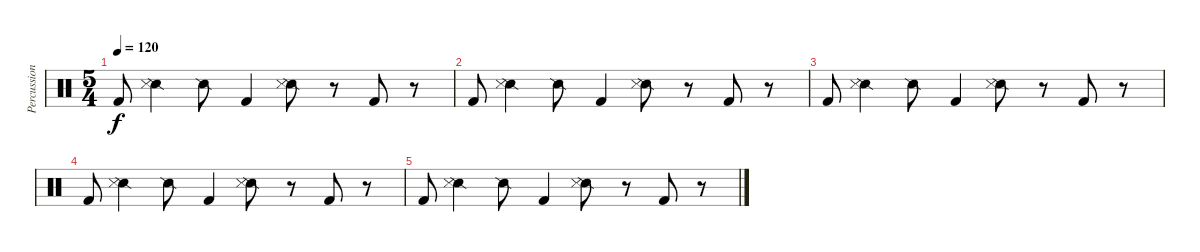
\track ("Percussions" "Percussion") {instrument percussion}
\staff {score}
\articulation defaults
\ts (5 4)
\tempo 120
\clef neutral
\ks c "Kick (hit) 2".8{dy f}
("Snare (side stick) 2" "Metronome (hit)").4 "Snare (side stick) 2".8 "Kick (hit) 2".4 ("Snare (side stick) 2" "Metronome (hit)").8 r.8 "Kick (hit) 2".8 r.8 |
"Kick (hit) 2".8 ("Snare (side stick) 2" "Metronome (hit)").4 "Snare (side stick) 2".8 "Kick (hit) 2".4 ("Snare (side stick) 2" "Metronome (hit)").8 r.8 "Kick (hit) 2".8 r.8 |
"Kick (hit) 2".8 ("Snare (side stick) 2" "Metronome (hit)").4 "Snare (side stick) 2".8 "Kick (hit) 2".4 ("Snare (side stick) 2" "Metronome (hit)").8 r.8 "Kick (hit) 2".8 r.8 |
"Kick (hit) 2".8 ("Snare (side stick) 2" "Metronome (hit)").4 "Snare (side stick) 2".8 "Kick (hit) 2".4 ("Snare (side stick) 2" "Metronome (hit)").8 r.8 "Kick (hit) 2".8 r.8 |
"Kick (hit) 2".8 ("Snare (side stick) 2" "Metronome (hit)").4 "Snare (side stick) 2".8 "Kick (hit) 2".4 ("Snare (side stick) 2" "Metronome (hit)").8 r.8 "Kick (hit) 2".8 r.8
